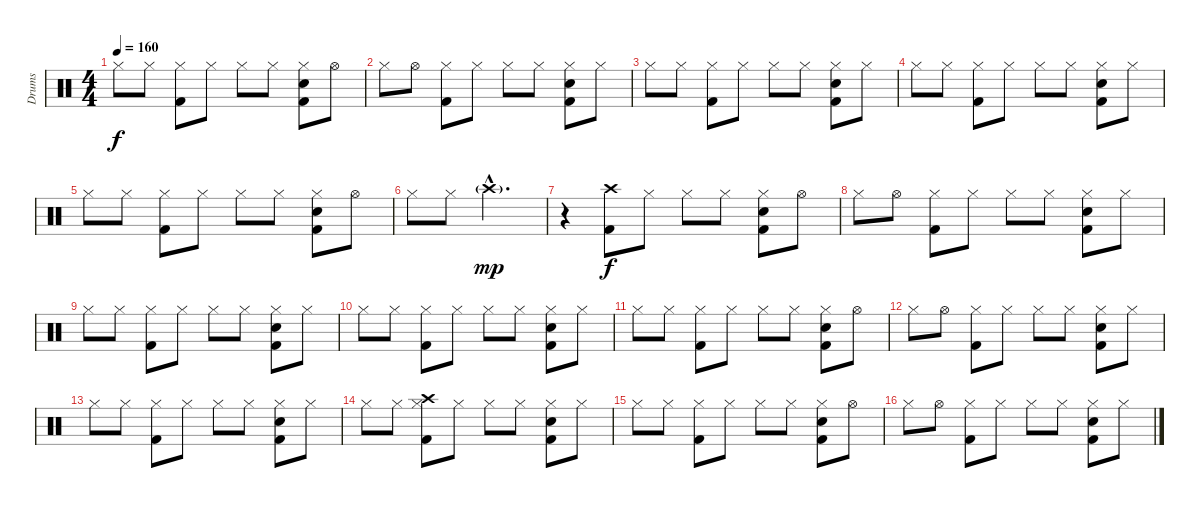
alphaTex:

\track ("Drums" "Drums") {instrument percussion}
\staff {score}
\articulation defaults
\ts (4 4)
\tempo 160
\clef neutral
\ks c "Hi-Hat (closed)".8{dy f} "Hi-Hat (closed)".8
("Kick (hit) 2" "Hi-Hat (closed)").8 "Hi-Hat (closed)".8 "Hi-Hat (closed)".8 "Hi-Hat (closed)".8 ("Snare (hit) 2" "Kick (hit) 2" "Hi-Hat (closed)").8 "Hi-Hat (open)".8 |
"Hi-Hat (closed)".8 "Hi-Hat (open)".8 ("Kick (hit) 2" "Hi-Hat (closed)").8 "Hi-Hat (closed)".8 "Hi-Hat (closed)".8 "Hi-Hat (closed)".8 ("Snare (hit) 2" "Kick (hit) 2" "Hi-Hat (closed)").8 "Hi-Hat (closed)".8 |
"Hi-Hat (closed)".8 "Hi-Hat (closed)".8 ("Kick (hit) 2" "Hi-Hat (closed)").8 "Hi-Hat (closed)".8 "Hi-Hat (closed)".8 "Hi-Hat (closed)".8 ("Snare (hit) 2" "Kick (hit) 2" "Hi-Hat (closed)").8 "Hi-Hat (closed)".8 |
"Hi-Hat (closed)".8 "Hi-Hat (closed)".8 ("Kick (hit) 2" "Hi-Hat (closed)").8 "Hi-Hat (closed)".8 "Hi-Hat (closed)".8 "Hi-Hat (closed)".8 ("Snare (hit) 2" "Kick (hit) 2" "Hi-Hat (closed)").8 "Hi-Hat (closed)".8 |
"Hi-Hat (closed)".8 "Hi-Hat (closed)".8 ("Kick (hit) 2" "Hi-Hat (closed)").8 "Hi-Hat (closed)".8 "Hi-Hat (closed)".8 "Hi-Hat (closed)".8 ("Snare (hit) 2" "Kick (hit) 2" "Hi-Hat (closed)").8 "Hi-Hat (open)".8 |
"Hi-Hat (closed)".8 "Hi-Hat (closed)".8 "Crash high (hit)"{g hac}.2{d dy mp} |
r.4 ("Crash high (hit)" "Kick (hit) 2").8{dy f} "Hi-Hat (closed)".8 "Hi-Hat (closed)".8 "Hi-Hat (closed)".8 ("Snare (hit) 2" "Kick (hit) 2" "Hi-Hat (closed)").8 "Hi-Hat (open)".8 |
"Hi-Hat (closed)".8 "Hi-Hat (open)".8 ("Kick (hit) 2" "Hi-Hat (closed)").8 "Hi-Hat (closed)".8 "Hi-Hat (closed)".8 "Hi-Hat (closed)".8 ("Snare (hit) 2" "Kick (hit) 2" "Hi-Hat (closed)").8 "Hi-Hat (closed)".8 |
"Hi-Hat (closed)".8 "Hi-Hat (closed)".8 ("Kick (hit) 2" "Hi-Hat (closed)").8 "Hi-Hat (closed)".8 "Hi-Hat (closed)".8 "Hi-Hat (closed)".8 ("Snare (hit) 2" "Kick (hit) 2" "Hi-Hat (closed)").8 "Hi-Hat (closed)".8 |
"Hi-Hat (closed)".8 "Hi-Hat (closed)".8 ("Kick (hit) 2" "Hi-Hat (closed)").8 "Hi-Hat (closed)".8 "Hi-Hat (closed)".8 "Hi-Hat (closed)".8 ("Snare (hit) 2" "Kick (hit) 2" "Hi-Hat (closed)").8 "Hi-Hat (closed)".8 |
"Hi-Hat (closed)".8 "Hi-Hat (closed)".8 ("Kick (hit) 2" "Hi-Hat (closed)").8 "Hi-Hat (closed)".8 "Hi-Hat (closed)".8 "Hi-Hat (closed)".8 ("Snare (hit) 2" "Kick (hit) 2" "Hi-Hat (closed)").8 "Hi-Hat (open)".8 |
"Hi-Hat (closed)".8 "Hi-Hat (open)".8 ("Kick (hit) 2" "Hi-Hat (closed)").8 "Hi-Hat (closed)".8 "Hi-Hat (closed)".8 "Hi-Hat (closed)".8 ("Snare (hit) 2" "Kick (hit) 2" "Hi-Hat (closed)").8 "Hi-Hat (closed)".8 |
"Hi-Hat (closed)".8 "Hi-Hat (closed)".8 ("Kick (hit) 2" "Hi-Hat (closed)").8 "Hi-Hat (closed)".8 "Hi-Hat (closed)".8 "Hi-Hat (closed)".8 ("Snare (hit) 2" "Kick (hit) 2" "Hi-Hat (closed)").8 "Hi-Hat (closed)".8 |
"Hi-Hat (closed)".8 "Hi-Hat (closed)".8 ("Crash high (hit)" "Kick (hit) 2" "Hi-Hat (closed)").8 "Hi-Hat (closed)".8 "Hi-Hat (closed)".8 "Hi-Hat (closed)".8 ("Snare (hit) 2" "Kick (hit) 2" "Hi-Hat (closed)").8 "Hi-Hat (closed)".8 |
"Hi-Hat (closed)".8 "Hi-Hat (closed)".8 ("Kick (hit) 2" "Hi-Hat (closed)").8 "Hi-Hat (closed)".8 "Hi-Hat (closed)".8 "Hi-Hat (closed)".8 ("Snare (hit) 2" "Kick (hit) 2" "Hi-Hat (closed)").8 "Hi-Hat (open)".8 |
"Hi-Hat (closed)".8 "Hi-Hat (open)".8 ("Kick (hit) 2" "Hi-Hat (closed)").8 "Hi-Hat (closed)".8 "Hi-Hat (closed)".8 "Hi-Hat (closed)".8 ("Snare (hit) 2" "Kick (hit) 2" "Hi-Hat (closed)").8 "Hi-Hat (closed)".8
